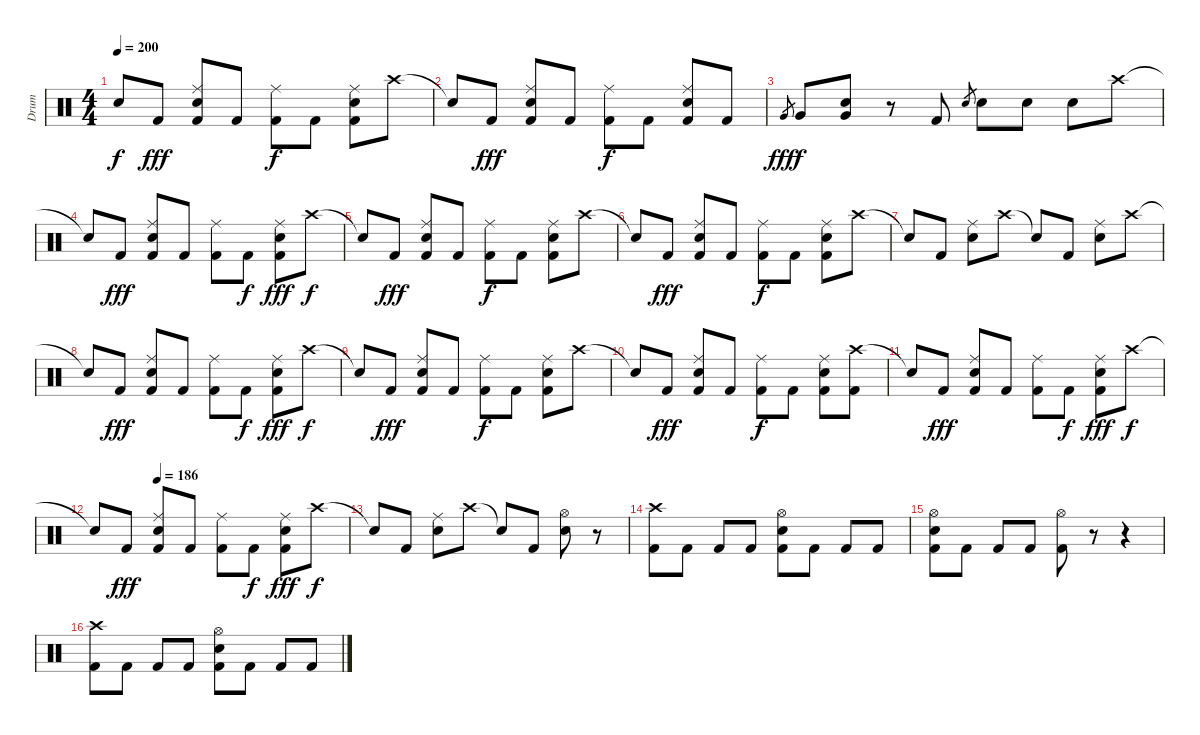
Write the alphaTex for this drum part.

\track ("Drum" "Drum") {instrument percussion}
\staff {score}
\articulation defaults
\ts (4 4)
\tempo 200
\clef neutral
\ks c "Snare (hit)"{t}.8{dy f} "Kick (hit) 2".8{dy fff}
("Ride (middle)" "Electric Snare (hit)" "Kick (hit) 2").8 "Kick (hit) 2".8 ("Ride (middle)" "Kick (hit) 2").8{dy f} "Kick (hit) 2".8 ("Ride (middle)" "Electric Snare (hit)" "Kick (hit) 2").8 "Crash high (hit)".8 |
"Snare (hit)"{t}.8 "Kick (hit) 2".8{dy fff} ("Ride (middle)" "Electric Snare (hit)" "Kick (hit) 2").8 "Kick (hit) 2".8 ("Ride (middle)" "Kick (hit) 2").8{dy f} "Kick (hit) 2".8 ("Ride (middle)" "Electric Snare (hit)" "Kick (hit) 2").8 "Kick (hit) 2".8 |
"Very Low Tom (hit)".8{gr dy fff} "Very Low Tom (hit)".8{dy f} ("Very Low Tom (hit)" "Electric Snare (hit)").8 r.8 "Kick (hit) 2".8 "Electric Snare (hit)".8{gr} "Electric Snare (hit)".8 "Electric Snare (hit)".8 "Electric Snare (hit)".8 "Crash high (hit)".8 |
"Snare (hit)"{t}.8 "Kick (hit) 2".8{dy fff} ("Ride (middle)" "Electric Snare (hit)" "Kick (hit) 2").8 "Kick (hit) 2".8 ("Ride (middle)" "Kick (hit) 2").8 "Kick (hit) 2".8{dy f} ("Ride (middle)" "Electric Snare (hit)" "Kick (hit) 2").8{dy fff} "Crash high (hit)".8{dy f} |
"Snare (hit)"{t}.8 "Kick (hit) 2".8{dy fff} ("Ride (middle)" "Electric Snare (hit)" "Kick (hit) 2").8 "Kick (hit) 2".8 ("Ride (middle)" "Kick (hit) 2").8{dy f} "Kick (hit) 2".8 ("Ride (middle)" "Electric Snare (hit)" "Kick (hit) 2").8 "Crash high (hit)".8 |
"Snare (hit)"{t}.8 "Kick (hit) 2".8{dy fff} ("Ride (middle)" "Electric Snare (hit)" "Kick (hit) 2").8 "Kick (hit) 2".8 ("Ride (middle)" "Kick (hit) 2").8{dy f} "Kick (hit) 2".8 ("Ride (middle)" "Electric Snare (hit)" "Kick (hit) 2").8 "Crash high (hit)".8 |
"Snare (hit)"{t}.8 "Kick (hit) 2".8 ("Ride (middle)" "Electric Snare (hit)").8 "Crash high (hit)".8 "Snare (hit)"{t}.8 "Kick (hit) 2".8 ("Ride (middle)" "Electric Snare (hit)").8 "Crash high (hit)".8 |
"Snare (hit)"{t}.8 "Kick (hit) 2".8{dy fff} ("Ride (middle)" "Electric Snare (hit)" "Kick (hit) 2").8 "Kick (hit) 2".8 ("Ride (middle)" "Kick (hit) 2").8 "Kick (hit) 2".8{dy f} ("Ride (middle)" "Electric Snare (hit)" "Kick (hit) 2").8{dy fff} "Crash high (hit)".8{dy f} |
"Snare (hit)"{t}.8 "Kick (hit) 2".8{dy fff} ("Ride (middle)" "Electric Snare (hit)" "Kick (hit) 2").8 "Kick (hit) 2".8 ("Ride (middle)" "Kick (hit) 2").8{dy f} "Kick (hit) 2".8 ("Ride (middle)" "Electric Snare (hit)" "Kick (hit) 2").8 "Crash high (hit)".8 |
"Snare (hit)"{t}.8 "Kick (hit) 2".8{dy fff} ("Ride (middle)" "Electric Snare (hit)" "Kick (hit) 2").8 "Kick (hit) 2".8 ("Ride (middle)" "Kick (hit) 2").8{dy f} "Kick (hit) 2".8 ("Ride (middle)" "Electric Snare (hit)" "Kick (hit) 2").8 ("Crash high (hit)" "Kick (hit) 2").8 |
"Snare (hit)"{t}.8 "Kick (hit) 2".8{dy fff} ("Ride (middle)" "Electric Snare (hit)" "Kick (hit) 2").8 "Kick (hit) 2".8 ("Ride (middle)" "Kick (hit) 2").8 "Kick (hit) 2".8{dy f} ("Ride (middle)" "Electric Snare (hit)" "Kick (hit) 2").8{dy fff} "Crash high (hit)".8{dy f} |
\tempo (186 0.25)
"Snare (hit)"{t}.8 "Kick (hit) 2".8{dy fff} ("Ride (middle)" "Electric Snare (hit)" "Kick (hit) 2").8 "Kick (hit) 2".8 ("Ride (middle)" "Kick (hit) 2").8 "Kick (hit) 2".8{dy f} ("Ride (middle)" "Electric Snare (hit)" "Kick (hit) 2").8{dy fff} "Crash high (hit)".8{dy f} |
"Snare (hit)"{t}.8 "Kick (hit) 2".8 ("Ride (middle)" "Electric Snare (hit)").8 "Crash high (hit)".8 "Snare (hit)"{t}.8 "Kick (hit) 2".8 ("Hi-Hat (open)" "Electric Snare (hit)").8 r.8 |
("Crash high (hit)" "Kick (hit) 2").8 "Kick (hit) 2".8 "Kick (hit) 2".8 "Kick (hit) 2".8 ("Hi-Hat (open)" "Electric Snare (hit)" "Kick (hit) 2").8 "Kick (hit) 2".8 "Kick (hit) 2".8 "Kick (hit) 2".8 |
("Hi-Hat (open)" "Electric Snare (hit)" "Kick (hit) 2").8 "Kick (hit) 2".8 "Kick (hit) 2".8 "Kick (hit) 2".8 ("Hi-Hat (open)" "Kick (hit) 2").8 r.8 r.4 |
("Crash high (hit)" "Kick (hit) 2").8 "Kick (hit) 2".8 "Kick (hit) 2".8 "Kick (hit) 2".8 ("Hi-Hat (open)" "Electric Snare (hit)" "Kick (hit) 2").8 "Kick (hit) 2".8 "Kick (hit) 2".8 "Kick (hit) 2".8
